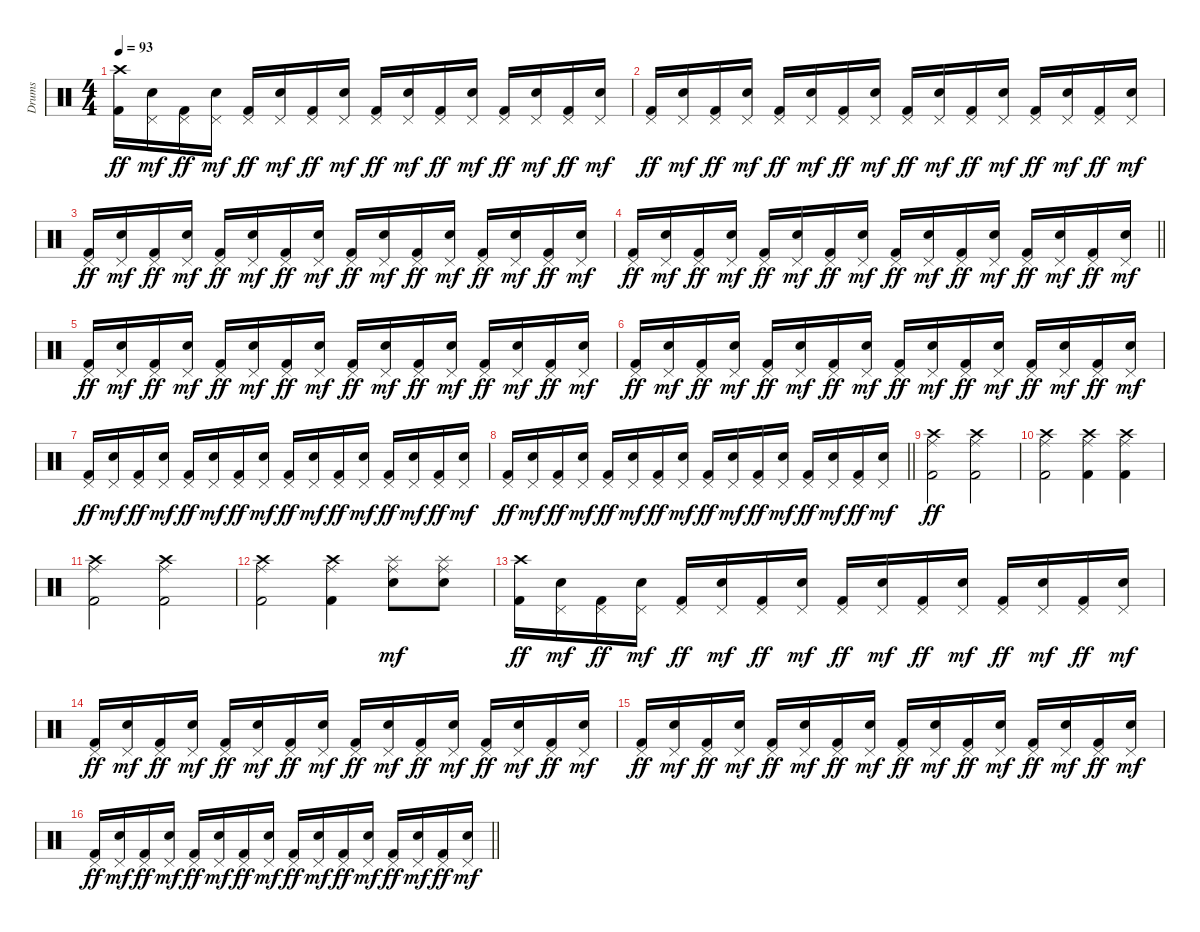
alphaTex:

\track ("Drums" "Drums") {instrument percussion}
\staff {score}
\articulation defaults
\ts (4 4)
\tempo 93
\clef neutral
\ks c
("Crash high (hit)" "Kick (hit) 2").16{dy ff} ("Pedal Hi-Hat (hit)" "Electric Snare (hit)").16{dy mf} ("Pedal Hi-Hat (hit)" "Kick (hit) 2").16{dy ff} ("Pedal Hi-Hat (hit)" "Electric Snare (hit)").16{dy mf} ("Pedal Hi-Hat (hit)" "Kick (hit) 2").16{dy ff} ("Pedal Hi-Hat (hit)" "Electric Snare (hit)").16{dy mf} ("Pedal Hi-Hat (hit)" "Kick (hit) 2").16{dy ff} ("Pedal Hi-Hat (hit)" "Electric Snare (hit)").16{dy mf} ("Pedal Hi-Hat (hit)" "Kick (hit) 2").16{dy ff} ("Pedal Hi-Hat (hit)" "Electric Snare (hit)").16{dy mf} ("Pedal Hi-Hat (hit)" "Kick (hit) 2").16{dy ff} ("Pedal Hi-Hat (hit)" "Electric Snare (hit)").16{dy mf} ("Pedal Hi-Hat (hit)" "Kick (hit) 2").16{dy ff} ("Pedal Hi-Hat (hit)" "Electric Snare (hit)").16{dy mf} ("Pedal Hi-Hat (hit)" "Kick (hit) 2").16{dy ff} ("Pedal Hi-Hat (hit)" "Electric Snare (hit)").16{dy mf} |
("Pedal Hi-Hat (hit)" "Kick (hit) 2").16{dy ff} ("Pedal Hi-Hat (hit)" "Electric Snare (hit)").16{dy mf} ("Pedal Hi-Hat (hit)" "Kick (hit) 2").16{dy ff} ("Pedal Hi-Hat (hit)" "Electric Snare (hit)").16{dy mf} ("Pedal Hi-Hat (hit)" "Kick (hit) 2").16{dy ff} ("Pedal Hi-Hat (hit)" "Electric Snare (hit)").16{dy mf} ("Pedal Hi-Hat (hit)" "Kick (hit) 2").16{dy ff} ("Pedal Hi-Hat (hit)" "Electric Snare (hit)").16{dy mf} ("Pedal Hi-Hat (hit)" "Kick (hit) 2").16{dy ff} ("Pedal Hi-Hat (hit)" "Electric Snare (hit)").16{dy mf} ("Pedal Hi-Hat (hit)" "Kick (hit) 2").16{dy ff} ("Pedal Hi-Hat (hit)" "Electric Snare (hit)").16{dy mf} ("Pedal Hi-Hat (hit)" "Kick (hit) 2").16{dy ff} ("Pedal Hi-Hat (hit)" "Electric Snare (hit)").16{dy mf} ("Pedal Hi-Hat (hit)" "Kick (hit) 2").16{dy ff} ("Pedal Hi-Hat (hit)" "Electric Snare (hit)").16{dy mf} |
("Pedal Hi-Hat (hit)" "Kick (hit) 2").16{dy ff} ("Pedal Hi-Hat (hit)" "Electric Snare (hit)").16{dy mf} ("Pedal Hi-Hat (hit)" "Kick (hit) 2").16{dy ff} ("Pedal Hi-Hat (hit)" "Electric Snare (hit)").16{dy mf} ("Pedal Hi-Hat (hit)" "Kick (hit) 2").16{dy ff} ("Pedal Hi-Hat (hit)" "Electric Snare (hit)").16{dy mf} ("Pedal Hi-Hat (hit)" "Kick (hit) 2").16{dy ff} ("Pedal Hi-Hat (hit)" "Electric Snare (hit)").16{dy mf} ("Pedal Hi-Hat (hit)" "Kick (hit) 2").16{dy ff} ("Pedal Hi-Hat (hit)" "Electric Snare (hit)").16{dy mf} ("Pedal Hi-Hat (hit)" "Kick (hit) 2").16{dy ff} ("Pedal Hi-Hat (hit)" "Electric Snare (hit)").16{dy mf} ("Pedal Hi-Hat (hit)" "Kick (hit) 2").16{dy ff} ("Pedal Hi-Hat (hit)" "Electric Snare (hit)").16{dy mf} ("Pedal Hi-Hat (hit)" "Kick (hit) 2").16{dy ff} ("Pedal Hi-Hat (hit)" "Electric Snare (hit)").16{dy mf} |
\barLineRight lightlight
("Pedal Hi-Hat (hit)" "Kick (hit) 2").16{dy ff} ("Pedal Hi-Hat (hit)" "Electric Snare (hit)").16{dy mf} ("Pedal Hi-Hat (hit)" "Kick (hit) 2").16{dy ff} ("Pedal Hi-Hat (hit)" "Electric Snare (hit)").16{dy mf} ("Pedal Hi-Hat (hit)" "Kick (hit) 2").16{dy ff} ("Pedal Hi-Hat (hit)" "Electric Snare (hit)").16{dy mf} ("Pedal Hi-Hat (hit)" "Kick (hit) 2").16{dy ff} ("Pedal Hi-Hat (hit)" "Electric Snare (hit)").16{dy mf} ("Pedal Hi-Hat (hit)" "Kick (hit) 2").16{dy ff} ("Pedal Hi-Hat (hit)" "Electric Snare (hit)").16{dy mf} ("Pedal Hi-Hat (hit)" "Kick (hit) 2").16{dy ff} ("Pedal Hi-Hat (hit)" "Electric Snare (hit)").16{dy mf} ("Pedal Hi-Hat (hit)" "Kick (hit) 2").16{dy ff} ("Pedal Hi-Hat (hit)" "Electric Snare (hit)").16{dy mf} ("Pedal Hi-Hat (hit)" "Kick (hit) 2").16{dy ff} ("Pedal Hi-Hat (hit)" "Electric Snare (hit)").16{dy mf} |
("Pedal Hi-Hat (hit)" "Kick (hit) 2").16{dy ff} ("Pedal Hi-Hat (hit)" "Electric Snare (hit)").16{dy mf} ("Pedal Hi-Hat (hit)" "Kick (hit) 2").16{dy ff} ("Pedal Hi-Hat (hit)" "Electric Snare (hit)").16{dy mf} ("Pedal Hi-Hat (hit)" "Kick (hit) 2").16{dy ff} ("Pedal Hi-Hat (hit)" "Electric Snare (hit)").16{dy mf} ("Pedal Hi-Hat (hit)" "Kick (hit) 2").16{dy ff} ("Pedal Hi-Hat (hit)" "Electric Snare (hit)").16{dy mf} ("Pedal Hi-Hat (hit)" "Kick (hit) 2").16{dy ff} ("Pedal Hi-Hat (hit)" "Electric Snare (hit)").16{dy mf} ("Pedal Hi-Hat (hit)" "Kick (hit) 2").16{dy ff} ("Pedal Hi-Hat (hit)" "Electric Snare (hit)").16{dy mf} ("Pedal Hi-Hat (hit)" "Kick (hit) 2").16{dy ff} ("Pedal Hi-Hat (hit)" "Electric Snare (hit)").16{dy mf} ("Pedal Hi-Hat (hit)" "Kick (hit) 2").16{dy ff} ("Pedal Hi-Hat (hit)" "Electric Snare (hit)").16{dy mf} |
("Pedal Hi-Hat (hit)" "Kick (hit) 2").16{dy ff} ("Pedal Hi-Hat (hit)" "Electric Snare (hit)").16{dy mf} ("Pedal Hi-Hat (hit)" "Kick (hit) 2").16{dy ff} ("Pedal Hi-Hat (hit)" "Electric Snare (hit)").16{dy mf} ("Pedal Hi-Hat (hit)" "Kick (hit) 2").16{dy ff} ("Pedal Hi-Hat (hit)" "Electric Snare (hit)").16{dy mf} ("Pedal Hi-Hat (hit)" "Kick (hit) 2").16{dy ff} ("Pedal Hi-Hat (hit)" "Electric Snare (hit)").16{dy mf} ("Pedal Hi-Hat (hit)" "Kick (hit) 2").16{dy ff} ("Pedal Hi-Hat (hit)" "Electric Snare (hit)").16{dy mf} ("Pedal Hi-Hat (hit)" "Kick (hit) 2").16{dy ff} ("Pedal Hi-Hat (hit)" "Electric Snare (hit)").16{dy mf} ("Pedal Hi-Hat (hit)" "Kick (hit) 2").16{dy ff} ("Pedal Hi-Hat (hit)" "Electric Snare (hit)").16{dy mf} ("Pedal Hi-Hat (hit)" "Kick (hit) 2").16{dy ff} ("Pedal Hi-Hat (hit)" "Electric Snare (hit)").16{dy mf} |
("Pedal Hi-Hat (hit)" "Kick (hit) 2").16{dy ff} ("Pedal Hi-Hat (hit)" "Electric Snare (hit)").16{dy mf} ("Pedal Hi-Hat (hit)" "Kick (hit) 2").16{dy ff} ("Pedal Hi-Hat (hit)" "Electric Snare (hit)").16{dy mf} ("Pedal Hi-Hat (hit)" "Kick (hit) 2").16{dy ff} ("Pedal Hi-Hat (hit)" "Electric Snare (hit)").16{dy mf} ("Pedal Hi-Hat (hit)" "Kick (hit) 2").16{dy ff} ("Pedal Hi-Hat (hit)" "Electric Snare (hit)").16{dy mf} ("Pedal Hi-Hat (hit)" "Kick (hit) 2").16{dy ff} ("Pedal Hi-Hat (hit)" "Electric Snare (hit)").16{dy mf} ("Pedal Hi-Hat (hit)" "Kick (hit) 2").16{dy ff} ("Pedal Hi-Hat (hit)" "Electric Snare (hit)").16{dy mf} ("Pedal Hi-Hat (hit)" "Kick (hit) 2").16{dy ff} ("Pedal Hi-Hat (hit)" "Electric Snare (hit)").16{dy mf} ("Pedal Hi-Hat (hit)" "Kick (hit) 2").16{dy ff} ("Pedal Hi-Hat (hit)" "Electric Snare (hit)").16{dy mf} |
\barLineRight lightlight
("Pedal Hi-Hat (hit)" "Kick (hit) 2").16{dy ff} ("Pedal Hi-Hat (hit)" "Electric Snare (hit)").16{dy mf} ("Pedal Hi-Hat (hit)" "Kick (hit) 2").16{dy ff} ("Pedal Hi-Hat (hit)" "Electric Snare (hit)").16{dy mf} ("Pedal Hi-Hat (hit)" "Kick (hit) 2").16{dy ff} ("Pedal Hi-Hat (hit)" "Electric Snare (hit)").16{dy mf} ("Pedal Hi-Hat (hit)" "Kick (hit) 2").16{dy ff} ("Pedal Hi-Hat (hit)" "Electric Snare (hit)").16{dy mf} ("Pedal Hi-Hat (hit)" "Kick (hit) 2").16{dy ff} ("Pedal Hi-Hat (hit)" "Electric Snare (hit)").16{dy mf} ("Pedal Hi-Hat (hit)" "Kick (hit) 2").16{dy ff} ("Pedal Hi-Hat (hit)" "Electric Snare (hit)").16{dy mf} ("Pedal Hi-Hat (hit)" "Kick (hit) 2").16{dy ff} ("Pedal Hi-Hat (hit)" "Electric Snare (hit)").16{dy mf} ("Pedal Hi-Hat (hit)" "Kick (hit) 2").16{dy ff} ("Pedal Hi-Hat (hit)" "Electric Snare (hit)").16{dy mf} |
("Crash high (hit)" "Ride (middle)" "Kick (hit) 2").2{dy ff} ("Crash high (hit)" "Ride (middle)" "Kick (hit) 2").2 |
("Crash high (hit)" "Ride (middle)" "Kick (hit) 2").2 ("Crash high (hit)" "Ride (middle)" "Kick (hit) 2").4 ("Crash high (hit)" "Ride (middle)" "Kick (hit) 2").4 |
("Crash high (hit)" "Ride (middle)" "Kick (hit) 2").2 ("Crash high (hit)" "Ride (middle)" "Kick (hit) 2").2 |
("Crash high (hit)" "Ride (middle)" "Kick (hit) 2").2 ("Crash high (hit)" "Ride (middle)" "Kick (hit) 2").4 ("Splash (hit)" "Ride (middle)" "Electric Snare (hit)").8{dy mf} ("Splash (hit)" "Ride (middle)" "Electric Snare (hit)").8 |
("Crash high (hit)" "Kick (hit) 2").16{dy ff} ("Pedal Hi-Hat (hit)" "Electric Snare (hit)").16{dy mf} ("Pedal Hi-Hat (hit)" "Kick (hit) 2").16{dy ff} ("Pedal Hi-Hat (hit)" "Electric Snare (hit)").16{dy mf} ("Pedal Hi-Hat (hit)" "Kick (hit) 2").16{dy ff} ("Pedal Hi-Hat (hit)" "Electric Snare (hit)").16{dy mf} ("Pedal Hi-Hat (hit)" "Kick (hit) 2").16{dy ff} ("Pedal Hi-Hat (hit)" "Electric Snare (hit)").16{dy mf} ("Pedal Hi-Hat (hit)" "Kick (hit) 2").16{dy ff} ("Pedal Hi-Hat (hit)" "Electric Snare (hit)").16{dy mf} ("Pedal Hi-Hat (hit)" "Kick (hit) 2").16{dy ff} ("Pedal Hi-Hat (hit)" "Electric Snare (hit)").16{dy mf} ("Pedal Hi-Hat (hit)" "Kick (hit) 2").16{dy ff} ("Pedal Hi-Hat (hit)" "Electric Snare (hit)").16{dy mf} ("Pedal Hi-Hat (hit)" "Kick (hit) 2").16{dy ff} ("Pedal Hi-Hat (hit)" "Electric Snare (hit)").16{dy mf} |
("Pedal Hi-Hat (hit)" "Kick (hit) 2").16{dy ff} ("Pedal Hi-Hat (hit)" "Electric Snare (hit)").16{dy mf} ("Pedal Hi-Hat (hit)" "Kick (hit) 2").16{dy ff} ("Pedal Hi-Hat (hit)" "Electric Snare (hit)").16{dy mf} ("Pedal Hi-Hat (hit)" "Kick (hit) 2").16{dy ff} ("Pedal Hi-Hat (hit)" "Electric Snare (hit)").16{dy mf} ("Pedal Hi-Hat (hit)" "Kick (hit) 2").16{dy ff} ("Pedal Hi-Hat (hit)" "Electric Snare (hit)").16{dy mf} ("Pedal Hi-Hat (hit)" "Kick (hit) 2").16{dy ff} ("Pedal Hi-Hat (hit)" "Electric Snare (hit)").16{dy mf} ("Pedal Hi-Hat (hit)" "Kick (hit) 2").16{dy ff} ("Pedal Hi-Hat (hit)" "Electric Snare (hit)").16{dy mf} ("Pedal Hi-Hat (hit)" "Kick (hit) 2").16{dy ff} ("Pedal Hi-Hat (hit)" "Electric Snare (hit)").16{dy mf} ("Pedal Hi-Hat (hit)" "Kick (hit) 2").16{dy ff} ("Pedal Hi-Hat (hit)" "Electric Snare (hit)").16{dy mf} |
("Pedal Hi-Hat (hit)" "Kick (hit) 2").16{dy ff} ("Pedal Hi-Hat (hit)" "Electric Snare (hit)").16{dy mf} ("Pedal Hi-Hat (hit)" "Kick (hit) 2").16{dy ff} ("Pedal Hi-Hat (hit)" "Electric Snare (hit)").16{dy mf} ("Pedal Hi-Hat (hit)" "Kick (hit) 2").16{dy ff} ("Pedal Hi-Hat (hit)" "Electric Snare (hit)").16{dy mf} ("Pedal Hi-Hat (hit)" "Kick (hit) 2").16{dy ff} ("Pedal Hi-Hat (hit)" "Electric Snare (hit)").16{dy mf} ("Pedal Hi-Hat (hit)" "Kick (hit) 2").16{dy ff} ("Pedal Hi-Hat (hit)" "Electric Snare (hit)").16{dy mf} ("Pedal Hi-Hat (hit)" "Kick (hit) 2").16{dy ff} ("Pedal Hi-Hat (hit)" "Electric Snare (hit)").16{dy mf} ("Pedal Hi-Hat (hit)" "Kick (hit) 2").16{dy ff} ("Pedal Hi-Hat (hit)" "Electric Snare (hit)").16{dy mf} ("Pedal Hi-Hat (hit)" "Kick (hit) 2").16{dy ff} ("Pedal Hi-Hat (hit)" "Electric Snare (hit)").16{dy mf} |
\barLineRight lightlight
("Pedal Hi-Hat (hit)" "Kick (hit) 2").16{dy ff} ("Pedal Hi-Hat (hit)" "Electric Snare (hit)").16{dy mf} ("Pedal Hi-Hat (hit)" "Kick (hit) 2").16{dy ff} ("Pedal Hi-Hat (hit)" "Electric Snare (hit)").16{dy mf} ("Pedal Hi-Hat (hit)" "Kick (hit) 2").16{dy ff} ("Pedal Hi-Hat (hit)" "Electric Snare (hit)").16{dy mf} ("Pedal Hi-Hat (hit)" "Kick (hit) 2").16{dy ff} ("Pedal Hi-Hat (hit)" "Electric Snare (hit)").16{dy mf} ("Pedal Hi-Hat (hit)" "Kick (hit) 2").16{dy ff} ("Pedal Hi-Hat (hit)" "Electric Snare (hit)").16{dy mf} ("Pedal Hi-Hat (hit)" "Kick (hit) 2").16{dy ff} ("Pedal Hi-Hat (hit)" "Electric Snare (hit)").16{dy mf} ("Pedal Hi-Hat (hit)" "Kick (hit) 2").16{dy ff} ("Pedal Hi-Hat (hit)" "Electric Snare (hit)").16{dy mf} ("Pedal Hi-Hat (hit)" "Kick (hit) 2").16{dy ff} ("Pedal Hi-Hat (hit)" "Electric Snare (hit)").16{dy mf}
